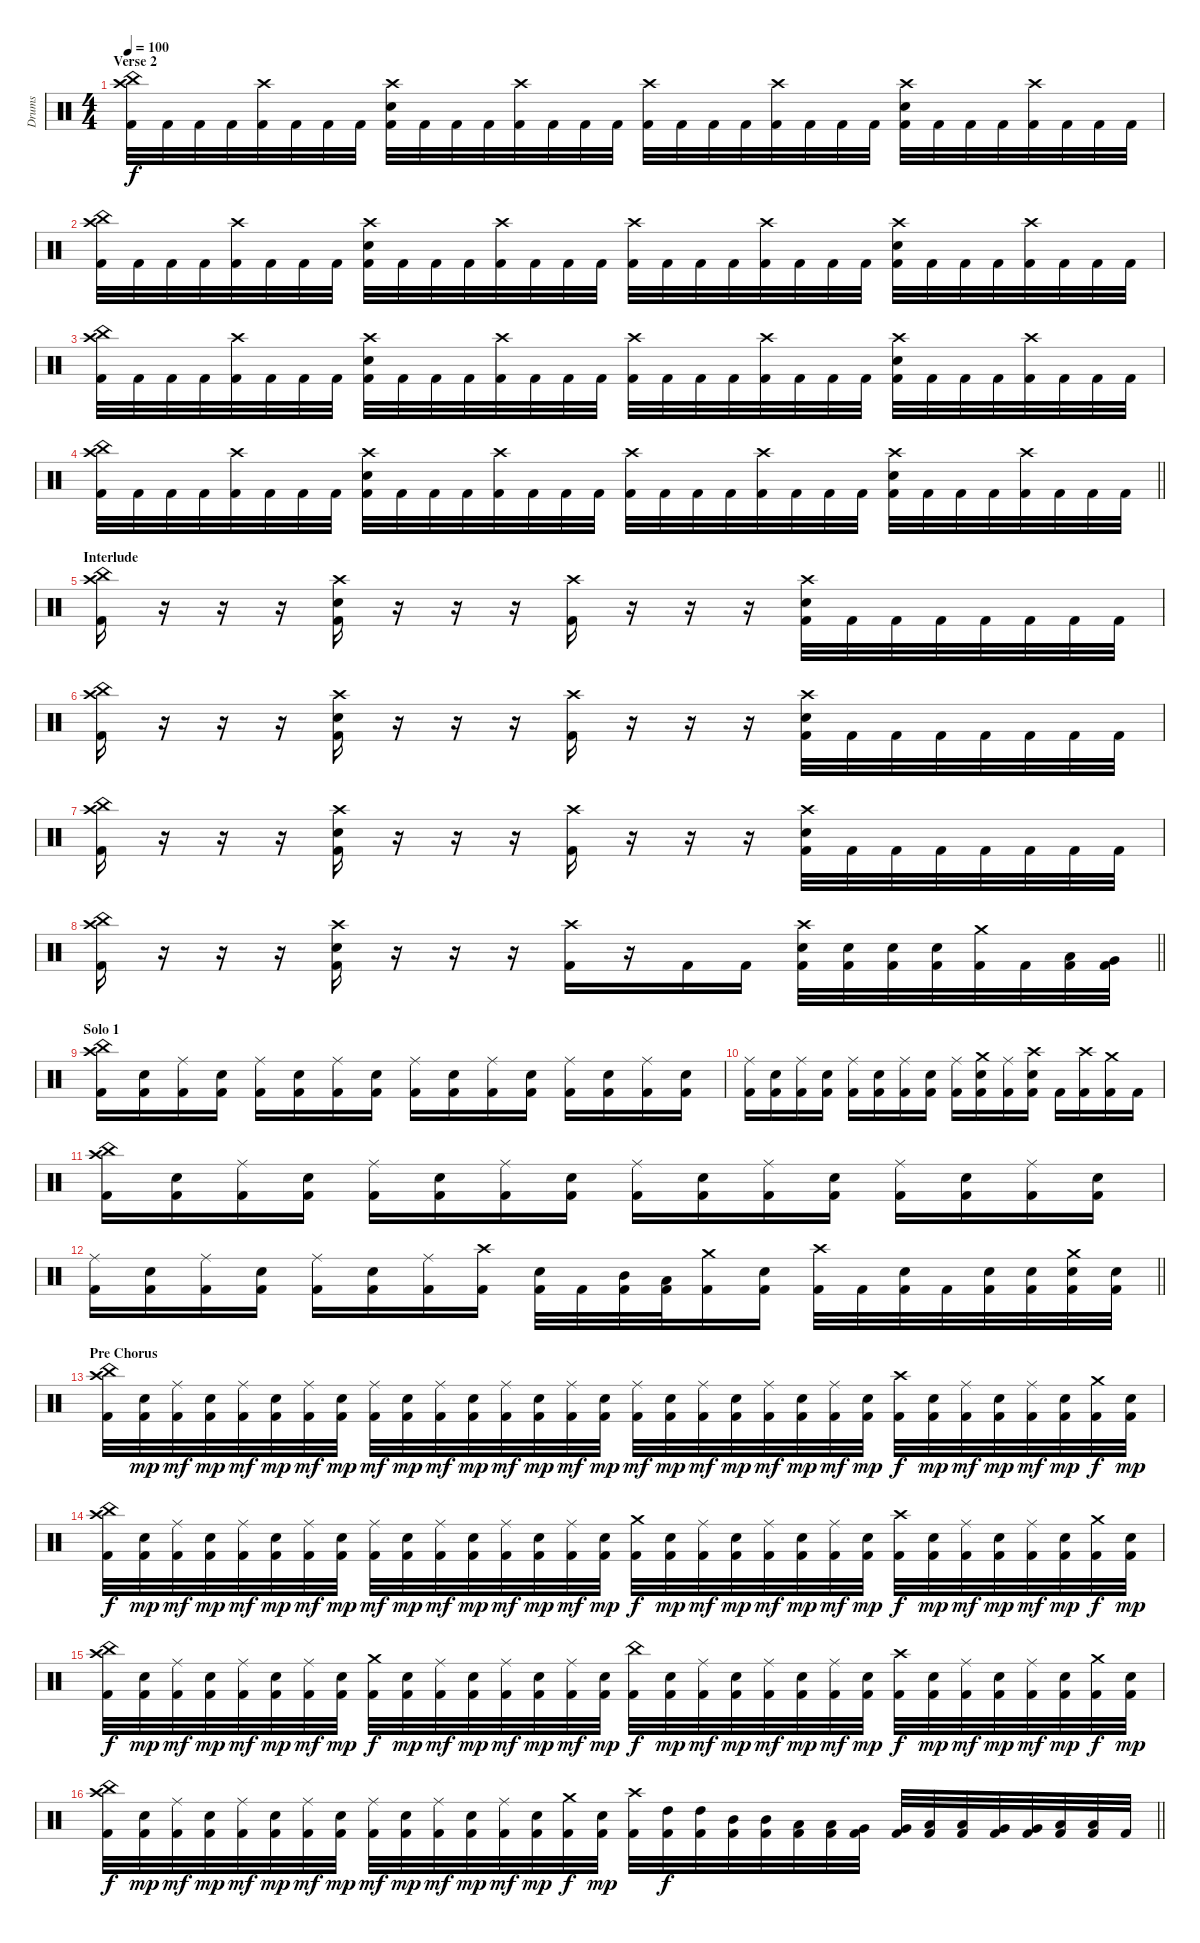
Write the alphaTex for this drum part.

\track ("Drums" "Drums") {instrument percussion}
\staff {score}
\articulation defaults
\ts (4 4)
\section ("" "Verse 2")
\tempo 100
\clef neutral
\ks c
("China (hit)" "Crash high (hit)" "Kick (hit) 2").32{dy f} "Kick (hit) 2".32 "Kick (hit) 2".32 "Kick (hit) 2".32 ("Crash high (hit)" "Kick (hit) 2").32 "Kick (hit) 2".32 "Kick (hit) 2".32 "Kick (hit) 2".32 ("Crash high (hit)" "Electric Snare (hit)" "Kick (hit) 2").32 "Kick (hit) 2".32 "Kick (hit) 2".32 "Kick (hit) 2".32 ("Crash high (hit)" "Kick (hit) 2").32 "Kick (hit) 2".32 "Kick (hit) 2".32 "Kick (hit) 2".32 ("Crash high (hit)" "Kick (hit) 2").32 "Kick (hit) 2".32 "Kick (hit) 2".32 "Kick (hit) 2".32 ("Crash high (hit)" "Kick (hit) 2").32 "Kick (hit) 2".32 "Kick (hit) 2".32 "Kick (hit) 2".32 ("Crash high (hit)" "Electric Snare (hit)" "Kick (hit) 2").32 "Kick (hit) 2".32 "Kick (hit) 2".32 "Kick (hit) 2".32 ("Crash high (hit)" "Kick (hit) 2").32 "Kick (hit) 2".32 "Kick (hit) 2".32 "Kick (hit) 2".32 |
("China (hit)" "Crash high (hit)" "Kick (hit) 2").32 "Kick (hit) 2".32 "Kick (hit) 2".32 "Kick (hit) 2".32 ("Crash high (hit)" "Kick (hit) 2").32 "Kick (hit) 2".32 "Kick (hit) 2".32 "Kick (hit) 2".32 ("Crash high (hit)" "Electric Snare (hit)" "Kick (hit) 2").32 "Kick (hit) 2".32 "Kick (hit) 2".32 "Kick (hit) 2".32 ("Crash high (hit)" "Kick (hit) 2").32 "Kick (hit) 2".32 "Kick (hit) 2".32 "Kick (hit) 2".32 ("Crash high (hit)" "Kick (hit) 2").32 "Kick (hit) 2".32 "Kick (hit) 2".32 "Kick (hit) 2".32 ("Crash high (hit)" "Kick (hit) 2").32 "Kick (hit) 2".32 "Kick (hit) 2".32 "Kick (hit) 2".32 ("Crash high (hit)" "Electric Snare (hit)" "Kick (hit) 2").32 "Kick (hit) 2".32 "Kick (hit) 2".32 "Kick (hit) 2".32 ("Crash high (hit)" "Kick (hit) 2").32 "Kick (hit) 2".32 "Kick (hit) 2".32 "Kick (hit) 2".32 |
("China (hit)" "Crash high (hit)" "Kick (hit) 2").32 "Kick (hit) 2".32 "Kick (hit) 2".32 "Kick (hit) 2".32 ("Crash high (hit)" "Kick (hit) 2").32 "Kick (hit) 2".32 "Kick (hit) 2".32 "Kick (hit) 2".32 ("Crash high (hit)" "Electric Snare (hit)" "Kick (hit) 2").32 "Kick (hit) 2".32 "Kick (hit) 2".32 "Kick (hit) 2".32 ("Crash high (hit)" "Kick (hit) 2").32 "Kick (hit) 2".32 "Kick (hit) 2".32 "Kick (hit) 2".32 ("Crash high (hit)" "Kick (hit) 2").32 "Kick (hit) 2".32 "Kick (hit) 2".32 "Kick (hit) 2".32 ("Crash high (hit)" "Kick (hit) 2").32 "Kick (hit) 2".32 "Kick (hit) 2".32 "Kick (hit) 2".32 ("Crash high (hit)" "Electric Snare (hit)" "Kick (hit) 2").32 "Kick (hit) 2".32 "Kick (hit) 2".32 "Kick (hit) 2".32 ("Crash high (hit)" "Kick (hit) 2").32 "Kick (hit) 2".32 "Kick (hit) 2".32 "Kick (hit) 2".32 |
\barLineRight lightlight
("China (hit)" "Crash high (hit)" "Kick (hit) 2").32 "Kick (hit) 2".32 "Kick (hit) 2".32 "Kick (hit) 2".32 ("Crash high (hit)" "Kick (hit) 2").32 "Kick (hit) 2".32 "Kick (hit) 2".32 "Kick (hit) 2".32 ("Crash high (hit)" "Electric Snare (hit)" "Kick (hit) 2").32 "Kick (hit) 2".32 "Kick (hit) 2".32 "Kick (hit) 2".32 ("Crash high (hit)" "Kick (hit) 2").32 "Kick (hit) 2".32 "Kick (hit) 2".32 "Kick (hit) 2".32 ("Crash high (hit)" "Kick (hit) 2").32 "Kick (hit) 2".32 "Kick (hit) 2".32 "Kick (hit) 2".32 ("Crash high (hit)" "Kick (hit) 2").32 "Kick (hit) 2".32 "Kick (hit) 2".32 "Kick (hit) 2".32 ("Crash high (hit)" "Electric Snare (hit)" "Kick (hit) 2").32 "Kick (hit) 2".32 "Kick (hit) 2".32 "Kick (hit) 2".32 ("Crash high (hit)" "Kick (hit) 2").32 "Kick (hit) 2".32 "Kick (hit) 2".32 "Kick (hit) 2".32 |
\section ("" "Interlude")
("China (hit)" "Crash high (hit)" "Kick (hit) 2").16 r.16 r.16 r.16 ("Crash high (hit)" "Electric Snare (hit)" "Kick (hit) 2").16 r.16 r.16 r.16 ("Crash high (hit)" "Kick (hit) 2").16 r.16 r.16 r.16 ("Crash high (hit)" "Electric Snare (hit)" "Kick (hit) 2").32 "Kick (hit) 2".32 "Kick (hit) 2".32 "Kick (hit) 2".32 "Kick (hit) 2".32 "Kick (hit) 2".32 "Kick (hit) 2".32 "Kick (hit) 2".32 |
("China (hit)" "Crash high (hit)" "Kick (hit) 2").16 r.16 r.16 r.16 ("Crash high (hit)" "Electric Snare (hit)" "Kick (hit) 2").16 r.16 r.16 r.16 ("Crash high (hit)" "Kick (hit) 2").16 r.16 r.16 r.16 ("Crash high (hit)" "Electric Snare (hit)" "Kick (hit) 2").32 "Kick (hit) 2".32 "Kick (hit) 2".32 "Kick (hit) 2".32 "Kick (hit) 2".32 "Kick (hit) 2".32 "Kick (hit) 2".32 "Kick (hit) 2".32 |
("China (hit)" "Crash high (hit)" "Kick (hit) 2").16 r.16 r.16 r.16 ("Crash high (hit)" "Electric Snare (hit)" "Kick (hit) 2").16 r.16 r.16 r.16 ("Crash high (hit)" "Kick (hit) 2").16 r.16 r.16 r.16 ("Crash high (hit)" "Electric Snare (hit)" "Kick (hit) 2").32 "Kick (hit) 2".32 "Kick (hit) 2".32 "Kick (hit) 2".32 "Kick (hit) 2".32 "Kick (hit) 2".32 "Kick (hit) 2".32 "Kick (hit) 2".32 |
\barLineRight lightlight
("China (hit)" "Crash high (hit)" "Kick (hit) 2").16 r.16 r.16 r.16 ("Crash high (hit)" "Electric Snare (hit)" "Kick (hit) 2").16 r.16 r.16 r.16 ("Crash high (hit)" "Kick (hit) 2").16 r.16 "Kick (hit) 2".16 "Kick (hit) 2".16 ("Crash high (hit)" "Electric Snare (hit)" "Kick (hit) 2").32 ("Electric Snare (hit)" "Kick (hit) 2").32 ("Electric Snare (hit)" "Kick (hit) 2").32 ("Electric Snare (hit)" "Kick (hit) 2").32 ("Crash medium (hit)" "Kick (hit) 2").32 "Kick (hit) 2".32 ("Low Tom (hit)" "Kick (hit) 2").32 ("Very Low Tom (hit)" "Kick (hit) 2").32 |
\section ("" "Solo 1")
("China (hit)" "Crash high (hit)" "Kick (hit) 2").16 ("Electric Snare (hit)" "Kick (hit) 2").16 ("Ride (middle)" "Kick (hit) 2").16 ("Electric Snare (hit)" "Kick (hit) 2").16 ("Ride (middle)" "Kick (hit) 2").16 ("Electric Snare (hit)" "Kick (hit) 2").16 ("Ride (middle)" "Kick (hit) 2").16 ("Electric Snare (hit)" "Kick (hit) 2").16 ("Ride (middle)" "Kick (hit) 2").16 ("Electric Snare (hit)" "Kick (hit) 2").16 ("Ride (middle)" "Kick (hit) 2").16 ("Electric Snare (hit)" "Kick (hit) 2").16 ("Ride (middle)" "Kick (hit) 2").16 ("Electric Snare (hit)" "Kick (hit) 2").16 ("Ride (middle)" "Kick (hit) 2").16 ("Electric Snare (hit)" "Kick (hit) 2").16 |
("Ride (middle)" "Kick (hit) 2").16 ("Electric Snare (hit)" "Kick (hit) 2").16 ("Ride (middle)" "Kick (hit) 2").16 ("Electric Snare (hit)" "Kick (hit) 2").16 ("Ride (middle)" "Kick (hit) 2").16 ("Electric Snare (hit)" "Kick (hit) 2").16 ("Ride (middle)" "Kick (hit) 2").16 ("Electric Snare (hit)" "Kick (hit) 2").16 ("Ride (middle)" "Kick (hit) 2").16 ("Crash medium (hit)" "Electric Snare (hit)" "Kick (hit) 2").16 ("Ride (middle)" "Kick (hit) 2").16 ("Crash high (hit)" "Electric Snare (hit)" "Kick (hit) 2").16 "Kick (hit) 2".16 ("Crash high (hit)" "Kick (hit) 2").16 ("Crash medium (hit)" "Kick (hit) 2").16 "Kick (hit) 2".16 |
("China (hit)" "Crash high (hit)" "Kick (hit) 2").16 ("Electric Snare (hit)" "Kick (hit) 2").16 ("Ride (middle)" "Kick (hit) 2").16 ("Electric Snare (hit)" "Kick (hit) 2").16 ("Ride (middle)" "Kick (hit) 2").16 ("Electric Snare (hit)" "Kick (hit) 2").16 ("Ride (middle)" "Kick (hit) 2").16 ("Electric Snare (hit)" "Kick (hit) 2").16 ("Ride (middle)" "Kick (hit) 2").16 ("Electric Snare (hit)" "Kick (hit) 2").16 ("Ride (middle)" "Kick (hit) 2").16 ("Electric Snare (hit)" "Kick (hit) 2").16 ("Ride (middle)" "Kick (hit) 2").16 ("Electric Snare (hit)" "Kick (hit) 2").16 ("Ride (middle)" "Kick (hit) 2").16 ("Electric Snare (hit)" "Kick (hit) 2").16 |
\barLineRight lightlight
("Ride (middle)" "Kick (hit) 2").16 ("Electric Snare (hit)" "Kick (hit) 2").16 ("Ride (middle)" "Kick (hit) 2").16 ("Electric Snare (hit)" "Kick (hit) 2").16 ("Ride (middle)" "Kick (hit) 2").16 ("Electric Snare (hit)" "Kick (hit) 2").16 ("Ride (middle)" "Kick (hit) 2").16 ("Crash high (hit)" "Kick (hit) 2").16 ("Electric Snare (hit)" "Kick (hit) 2").32 "Kick (hit) 2".32 ("Mid Tom (hit)" "Kick (hit) 2").32 ("Low Tom (hit)" "Kick (hit) 2").32 ("Crash medium (hit)" "Kick (hit) 2").16 ("Electric Snare (hit)" "Kick (hit) 2").16 ("Crash high (hit)" "Kick (hit) 2").32 "Kick (hit) 2".32 ("Electric Snare (hit)" "Kick (hit) 2").32 "Kick (hit) 2".32 ("Electric Snare (hit)" "Kick (hit) 2").32 ("Electric Snare (hit)" "Kick (hit) 2").32 ("Crash medium (hit)" "Electric Snare (hit)" "Kick (hit) 2").32 ("Electric Snare (hit)" "Kick (hit) 2").32 |
\section ("" "Pre Chorus")
("China (hit)" "Crash high (hit)" "Kick (hit) 2").32 ("Electric Snare (hit)" "Kick (hit) 2").32{dy mp} ("Ride (middle)" "Kick (hit) 2").32{dy mf} ("Electric Snare (hit)" "Kick (hit) 2").32{dy mp} ("Ride (middle)" "Kick (hit) 2").32{dy mf} ("Electric Snare (hit)" "Kick (hit) 2").32{dy mp} ("Ride (middle)" "Kick (hit) 2").32{dy mf} ("Electric Snare (hit)" "Kick (hit) 2").32{dy mp} ("Ride (middle)" "Kick (hit) 2").32{dy mf} ("Electric Snare (hit)" "Kick (hit) 2").32{dy mp} ("Ride (middle)" "Kick (hit) 2").32{dy mf} ("Electric Snare (hit)" "Kick (hit) 2").32{dy mp} ("Ride (middle)" "Kick (hit) 2").32{dy mf} ("Electric Snare (hit)" "Kick (hit) 2").32{dy mp} ("Ride (middle)" "Kick (hit) 2").32{dy mf} ("Electric Snare (hit)" "Kick (hit) 2").32{dy mp} ("Ride (middle)" "Kick (hit) 2").32{dy mf} ("Electric Snare (hit)" "Kick (hit) 2").32{dy mp} ("Ride (middle)" "Kick (hit) 2").32{dy mf} ("Electric Snare (hit)" "Kick (hit) 2").32{dy mp} ("Ride (middle)" "Kick (hit) 2").32{dy mf} ("Electric Snare (hit)" "Kick (hit) 2").32{dy mp} ("Ride (middle)" "Kick (hit) 2").32{dy mf} ("Electric Snare (hit)" "Kick (hit) 2").32{dy mp} ("Crash high (hit)" "Kick (hit) 2").32{dy f} ("Electric Snare (hit)" "Kick (hit) 2").32{dy mp} ("Ride (middle)" "Kick (hit) 2").32{dy mf} ("Electric Snare (hit)" "Kick (hit) 2").32{dy mp} ("Ride (middle)" "Kick (hit) 2").32{dy mf} ("Electric Snare (hit)" "Kick (hit) 2").32{dy mp} ("Crash medium (hit)" "Kick (hit) 2").32{dy f} ("Electric Snare (hit)" "Kick (hit) 2").32{dy mp} |
("China (hit)" "Crash high (hit)" "Kick (hit) 2").32{dy f} ("Electric Snare (hit)" "Kick (hit) 2").32{dy mp} ("Ride (middle)" "Kick (hit) 2").32{dy mf} ("Electric Snare (hit)" "Kick (hit) 2").32{dy mp} ("Ride (middle)" "Kick (hit) 2").32{dy mf} ("Electric Snare (hit)" "Kick (hit) 2").32{dy mp} ("Ride (middle)" "Kick (hit) 2").32{dy mf} ("Electric Snare (hit)" "Kick (hit) 2").32{dy mp} ("Ride (middle)" "Kick (hit) 2").32{dy mf} ("Electric Snare (hit)" "Kick (hit) 2").32{dy mp} ("Ride (middle)" "Kick (hit) 2").32{dy mf} ("Electric Snare (hit)" "Kick (hit) 2").32{dy mp} ("Ride (middle)" "Kick (hit) 2").32{dy mf} ("Electric Snare (hit)" "Kick (hit) 2").32{dy mp} ("Ride (middle)" "Kick (hit) 2").32{dy mf} ("Electric Snare (hit)" "Kick (hit) 2").32{dy mp} ("Crash medium (hit)" "Kick (hit) 2").32{dy f} ("Electric Snare (hit)" "Kick (hit) 2").32{dy mp} ("Ride (middle)" "Kick (hit) 2").32{dy mf} ("Electric Snare (hit)" "Kick (hit) 2").32{dy mp} ("Ride (middle)" "Kick (hit) 2").32{dy mf} ("Electric Snare (hit)" "Kick (hit) 2").32{dy mp} ("Ride (middle)" "Kick (hit) 2").32{dy mf} ("Electric Snare (hit)" "Kick (hit) 2").32{dy mp} ("Crash high (hit)" "Kick (hit) 2").32{dy f} ("Electric Snare (hit)" "Kick (hit) 2").32{dy mp} ("Ride (middle)" "Kick (hit) 2").32{dy mf} ("Electric Snare (hit)" "Kick (hit) 2").32{dy mp} ("Ride (middle)" "Kick (hit) 2").32{dy mf} ("Electric Snare (hit)" "Kick (hit) 2").32{dy mp} ("Crash medium (hit)" "Kick (hit) 2").32{dy f} ("Electric Snare (hit)" "Kick (hit) 2").32{dy mp} |
("China (hit)" "Crash high (hit)" "Kick (hit) 2").32{dy f} ("Electric Snare (hit)" "Kick (hit) 2").32{dy mp} ("Ride (middle)" "Kick (hit) 2").32{dy mf} ("Electric Snare (hit)" "Kick (hit) 2").32{dy mp} ("Ride (middle)" "Kick (hit) 2").32{dy mf} ("Electric Snare (hit)" "Kick (hit) 2").32{dy mp} ("Ride (middle)" "Kick (hit) 2").32{dy mf} ("Electric Snare (hit)" "Kick (hit) 2").32{dy mp} ("Crash medium (hit)" "Kick (hit) 2").32{dy f} ("Electric Snare (hit)" "Kick (hit) 2").32{dy mp} ("Ride (middle)" "Kick (hit) 2").32{dy mf} ("Electric Snare (hit)" "Kick (hit) 2").32{dy mp} ("Ride (middle)" "Kick (hit) 2").32{dy mf} ("Electric Snare (hit)" "Kick (hit) 2").32{dy mp} ("Ride (middle)" "Kick (hit) 2").32{dy mf} ("Electric Snare (hit)" "Kick (hit) 2").32{dy mp} ("China (hit)" "Kick (hit) 2").32{dy f} ("Electric Snare (hit)" "Kick (hit) 2").32{dy mp} ("Ride (middle)" "Kick (hit) 2").32{dy mf} ("Electric Snare (hit)" "Kick (hit) 2").32{dy mp} ("Ride (middle)" "Kick (hit) 2").32{dy mf} ("Electric Snare (hit)" "Kick (hit) 2").32{dy mp} ("Ride (middle)" "Kick (hit) 2").32{dy mf} ("Electric Snare (hit)" "Kick (hit) 2").32{dy mp} ("Crash high (hit)" "Kick (hit) 2").32{dy f} ("Electric Snare (hit)" "Kick (hit) 2").32{dy mp} ("Ride (middle)" "Kick (hit) 2").32{dy mf} ("Electric Snare (hit)" "Kick (hit) 2").32{dy mp} ("Ride (middle)" "Kick (hit) 2").32{dy mf} ("Electric Snare (hit)" "Kick (hit) 2").32{dy mp} ("Crash medium (hit)" "Kick (hit) 2").32{dy f} ("Electric Snare (hit)" "Kick (hit) 2").32{dy mp} |
\barLineRight lightlight
("China (hit)" "Crash high (hit)" "Kick (hit) 2").32{dy f} ("Electric Snare (hit)" "Kick (hit) 2").32{dy mp} ("Ride (middle)" "Kick (hit) 2").32{dy mf} ("Electric Snare (hit)" "Kick (hit) 2").32{dy mp} ("Ride (middle)" "Kick (hit) 2").32{dy mf} ("Electric Snare (hit)" "Kick (hit) 2").32{dy mp} ("Ride (middle)" "Kick (hit) 2").32{dy mf} ("Electric Snare (hit)" "Kick (hit) 2").32{dy mp} ("Ride (middle)" "Kick (hit) 2").32{dy mf} ("Electric Snare (hit)" "Kick (hit) 2").32{dy mp} ("Ride (middle)" "Kick (hit) 2").32{dy mf} ("Electric Snare (hit)" "Kick (hit) 2").32{dy mp} ("Ride (middle)" "Kick (hit) 2").32{dy mf} ("Electric Snare (hit)" "Kick (hit) 2").32{dy mp} ("Crash medium (hit)" "Kick (hit) 2").32{dy f} ("Electric Snare (hit)" "Kick (hit) 2").32{dy mp} ("Crash high (hit)" "Kick (hit) 2").32 ("High Tom (hit)" "Kick (hit) 2").32{dy f} ("High Tom (hit)" "Kick (hit) 2").32 ("Mid Tom (hit)" "Kick (hit) 2").32 ("Mid Tom (hit)" "Kick (hit) 2").32 ("Low Tom (hit)" "Kick (hit) 2").32 ("Low Tom (hit)" "Kick (hit) 2").32 ("Very Low Tom (hit)" "Kick (hit) 2").32 ("Very Low Tom (hit)" "Kick (hit) 2").32 ("Low Tom (hit)" "Kick (hit) 2").32 ("Low Tom (hit)" "Kick (hit) 2").32 ("Very Low Tom (hit)" "Kick (hit) 2").32 ("Very Low Tom (hit)" "Kick (hit) 2").32 ("Low Floor Tom (hit)" "Kick (hit) 2").32 ("Low Floor Tom (hit)" "Kick (hit) 2").32 "Kick (hit) 2".32
